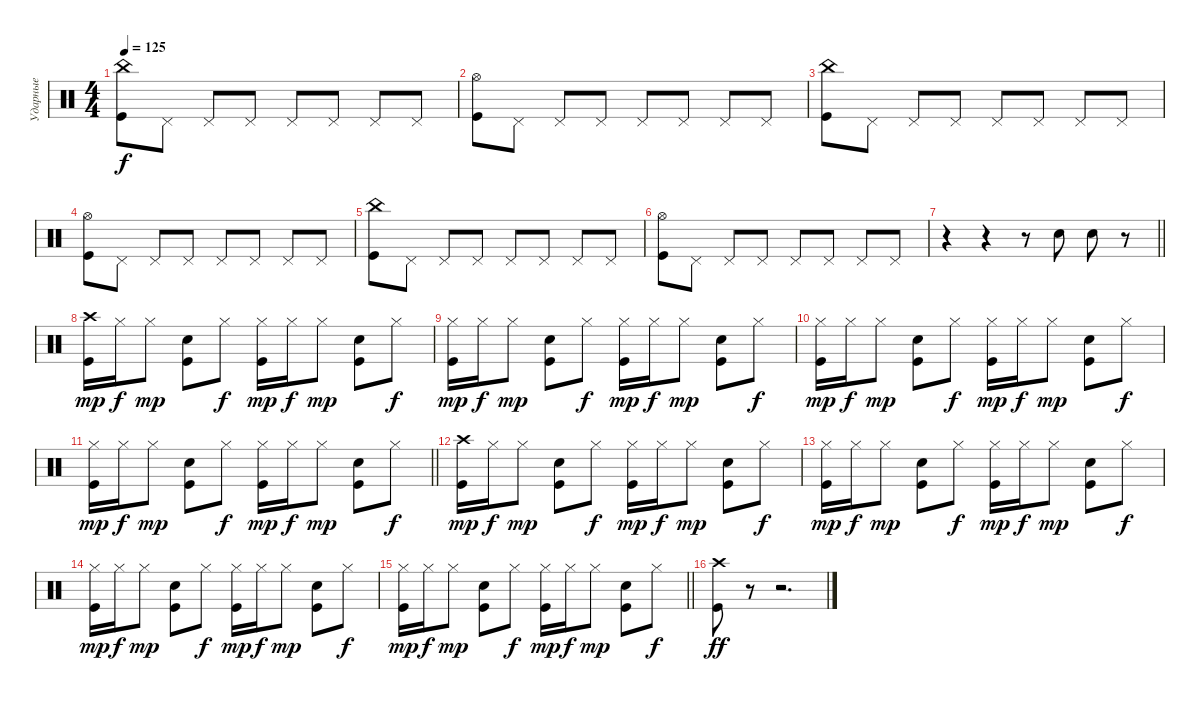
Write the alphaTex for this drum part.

\track ("Ударные" "Ударные") {instrument percussion}
\staff {score}
\articulation defaults
\ts (4 4)
\tempo 125
\clef neutral
\ks c
("China (hit)" "Kick (hit)").8{dy f} "Pedal Hi-Hat (hit)".8 "Pedal Hi-Hat (hit)".8 "Pedal Hi-Hat (hit)".8 "Pedal Hi-Hat (hit)".8 "Pedal Hi-Hat (hit)".8 "Pedal Hi-Hat (hit)".8 "Pedal Hi-Hat (hit)".8 |
("Hi-Hat (open)" "Kick (hit)").8 "Pedal Hi-Hat (hit)".8 "Pedal Hi-Hat (hit)".8 "Pedal Hi-Hat (hit)".8 "Pedal Hi-Hat (hit)".8 "Pedal Hi-Hat (hit)".8 "Pedal Hi-Hat (hit)".8 "Pedal Hi-Hat (hit)".8 |
("China (hit)" "Kick (hit)").8 "Pedal Hi-Hat (hit)".8 "Pedal Hi-Hat (hit)".8 "Pedal Hi-Hat (hit)".8 "Pedal Hi-Hat (hit)".8 "Pedal Hi-Hat (hit)".8 "Pedal Hi-Hat (hit)".8 "Pedal Hi-Hat (hit)".8 |
("Hi-Hat (open)" "Kick (hit)").8 "Pedal Hi-Hat (hit)".8 "Pedal Hi-Hat (hit)".8 "Pedal Hi-Hat (hit)".8 "Pedal Hi-Hat (hit)".8 "Pedal Hi-Hat (hit)".8 "Pedal Hi-Hat (hit)".8 "Pedal Hi-Hat (hit)".8 |
("China (hit)" "Kick (hit)").8 "Pedal Hi-Hat (hit)".8 "Pedal Hi-Hat (hit)".8 "Pedal Hi-Hat (hit)".8 "Pedal Hi-Hat (hit)".8 "Pedal Hi-Hat (hit)".8 "Pedal Hi-Hat (hit)".8 "Pedal Hi-Hat (hit)".8 |
("Hi-Hat (open)" "Kick (hit)").8 "Pedal Hi-Hat (hit)".8 "Pedal Hi-Hat (hit)".8 "Pedal Hi-Hat (hit)".8 "Pedal Hi-Hat (hit)".8 "Pedal Hi-Hat (hit)".8 "Pedal Hi-Hat (hit)".8 "Pedal Hi-Hat (hit)".8 |
\barLineRight lightlight
r.4 r.4 r.8 "Electric Snare (hit)".8 "Electric Snare (hit)".8 r.8 |
("Crash high (hit)" "Kick (hit)").16{dy mp} "Hi-Hat (closed)".16{dy f} "Hi-Hat (closed)".8{dy mp} ("Electric Snare (hit)" "Kick (hit)").8 "Hi-Hat (closed)".8{dy f} ("Hi-Hat (closed)" "Kick (hit)").16{dy mp} "Hi-Hat (closed)".16{dy f} "Hi-Hat (closed)".8{dy mp} ("Electric Snare (hit)" "Kick (hit)").8 "Hi-Hat (closed)".8{dy f} |
("Hi-Hat (closed)" "Kick (hit)").16{dy mp} "Hi-Hat (closed)".16{dy f} "Hi-Hat (closed)".8{dy mp} ("Electric Snare (hit)" "Kick (hit)").8 "Hi-Hat (closed)".8{dy f} ("Hi-Hat (closed)" "Kick (hit)").16{dy mp} "Hi-Hat (closed)".16{dy f} "Hi-Hat (closed)".8{dy mp} ("Electric Snare (hit)" "Kick (hit)").8 "Hi-Hat (closed)".8{dy f} |
("Hi-Hat (closed)" "Kick (hit)").16{dy mp} "Hi-Hat (closed)".16{dy f} "Hi-Hat (closed)".8{dy mp} ("Electric Snare (hit)" "Kick (hit)").8 "Hi-Hat (closed)".8{dy f} ("Hi-Hat (closed)" "Kick (hit)").16{dy mp} "Hi-Hat (closed)".16{dy f} "Hi-Hat (closed)".8{dy mp} ("Electric Snare (hit)" "Kick (hit)").8 "Hi-Hat (closed)".8{dy f} |
\barLineRight lightlight
("Hi-Hat (closed)" "Kick (hit)").16{dy mp} "Hi-Hat (closed)".16{dy f} "Hi-Hat (closed)".8{dy mp} ("Electric Snare (hit)" "Kick (hit)").8 "Hi-Hat (closed)".8{dy f} ("Hi-Hat (closed)" "Kick (hit)").16{dy mp} "Hi-Hat (closed)".16{dy f} "Hi-Hat (closed)".8{dy mp} ("Electric Snare (hit)" "Kick (hit)").8 "Hi-Hat (closed)".8{dy f} |
("Crash high (hit)" "Kick (hit)").16{dy mp} "Hi-Hat (closed)".16{dy f} "Hi-Hat (closed)".8{dy mp} ("Electric Snare (hit)" "Kick (hit)").8 "Hi-Hat (closed)".8{dy f} ("Hi-Hat (closed)" "Kick (hit)").16{dy mp} "Hi-Hat (closed)".16{dy f} "Hi-Hat (closed)".8{dy mp} ("Electric Snare (hit)" "Kick (hit)").8 "Hi-Hat (closed)".8{dy f} |
("Hi-Hat (closed)" "Kick (hit)").16{dy mp} "Hi-Hat (closed)".16{dy f} "Hi-Hat (closed)".8{dy mp} ("Electric Snare (hit)" "Kick (hit)").8 "Hi-Hat (closed)".8{dy f} ("Hi-Hat (closed)" "Kick (hit)").16{dy mp} "Hi-Hat (closed)".16{dy f} "Hi-Hat (closed)".8{dy mp} ("Electric Snare (hit)" "Kick (hit)").8 "Hi-Hat (closed)".8{dy f} |
("Hi-Hat (closed)" "Kick (hit)").16{dy mp} "Hi-Hat (closed)".16{dy f} "Hi-Hat (closed)".8{dy mp} ("Electric Snare (hit)" "Kick (hit)").8 "Hi-Hat (closed)".8{dy f} ("Hi-Hat (closed)" "Kick (hit)").16{dy mp} "Hi-Hat (closed)".16{dy f} "Hi-Hat (closed)".8{dy mp} ("Electric Snare (hit)" "Kick (hit)").8 "Hi-Hat (closed)".8{dy f} |
\barLineRight lightlight
("Hi-Hat (closed)" "Kick (hit)").16{dy mp} "Hi-Hat (closed)".16{dy f} "Hi-Hat (closed)".8{dy mp} ("Electric Snare (hit)" "Kick (hit)").8 "Hi-Hat (closed)".8{dy f} ("Hi-Hat (closed)" "Kick (hit)").16{dy mp} "Hi-Hat (closed)".16{dy f} "Hi-Hat (closed)".8{dy mp} ("Electric Snare (hit)" "Kick (hit)").8 "Hi-Hat (closed)".8{dy f} |
("Crash high (hit)" "Kick (hit)").8{dy ff} r.8 r.2{d}
